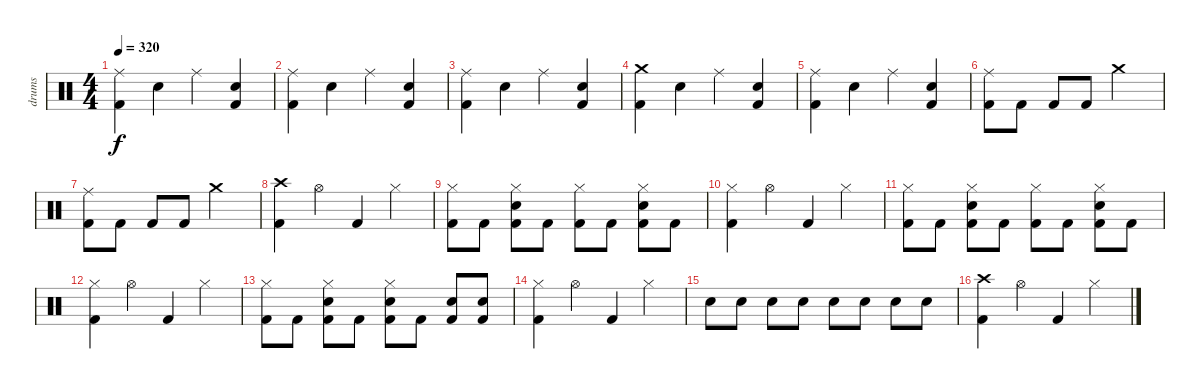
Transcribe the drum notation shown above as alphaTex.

\track ("drums" "drums") {instrument percussion}
\staff {score}
\articulation defaults
\ts (4 4)
\tempo 320
\clef neutral
\ks c
("Ride (middle)" "Kick (hit) 2").4{dy f} "Snare (hit) 2".4 "Ride (middle)".4 ("Snare (hit) 2" "Kick (hit) 2").4 |
("Ride (middle)" "Kick (hit) 2").4 "Snare (hit) 2".4 "Ride (middle)".4 ("Snare (hit) 2" "Kick (hit) 2").4 |
("Ride (middle)" "Kick (hit) 2").4 "Snare (hit) 2".4 "Ride (middle)".4 ("Snare (hit) 2" "Kick (hit) 2").4 |
("Crash medium (hit)" "Kick (hit) 2").4 "Snare (hit) 2".4 "Ride (middle)".4 ("Snare (hit) 2" "Kick (hit) 2").4 |
("Ride (middle)" "Kick (hit) 2").4 "Snare (hit) 2".4 "Ride (middle)".4 ("Snare (hit) 2" "Kick (hit) 2").4 |
("Ride (middle)" "Kick (hit) 2").8 "Kick (hit) 2".8 "Kick (hit) 2".8 "Kick (hit) 2".8 "Crash medium (hit)".2 |
("Ride (middle)" "Kick (hit) 2").8 "Kick (hit) 2".8 "Kick (hit) 2".8 "Kick (hit) 2".8 "Crash medium (hit)".2 |
("Crash high (hit)" "Kick (hit) 2").4 "Hi-Hat (open)".4 "Kick (hit) 2".4 "Hi-Hat (closed)".4 |
("Hi-Hat (closed)" "Kick (hit) 2").8 "Kick (hit) 2".8 ("Hi-Hat (closed)" "Kick (hit) 2" "Snare (hit) 2").8 "Kick (hit) 2".8 ("Hi-Hat (closed)" "Kick (hit) 2").8 "Kick (hit) 2".8 ("Hi-Hat (closed)" "Kick (hit) 2" "Snare (hit) 2").8 "Kick (hit) 2".8 |
("Hi-Hat (closed)" "Kick (hit) 2").4 "Hi-Hat (open)".4 "Kick (hit) 2".4 "Hi-Hat (closed)".4 |
("Hi-Hat (closed)" "Kick (hit) 2").8 "Kick (hit) 2".8 ("Hi-Hat (closed)" "Kick (hit) 2" "Snare (hit) 2").8 "Kick (hit) 2".8 ("Hi-Hat (closed)" "Kick (hit) 2").8 "Kick (hit) 2".8 ("Hi-Hat (closed)" "Kick (hit) 2" "Snare (hit) 2").8 "Kick (hit) 2".8 |
("Hi-Hat (closed)" "Kick (hit) 2").4 "Hi-Hat (open)".4 "Kick (hit) 2".4 "Hi-Hat (closed)".4 |
("Hi-Hat (closed)" "Kick (hit) 2").8 "Kick (hit) 2".8 ("Hi-Hat (closed)" "Kick (hit) 2" "Snare (hit) 2").8 "Kick (hit) 2".8 ("Hi-Hat (closed)" "Kick (hit) 2" "Snare (hit) 2").8 "Kick (hit) 2".8 ("Kick (hit) 2" "Snare (hit) 2").8 ("Kick (hit) 2" "Snare (hit) 2").8 |
("Hi-Hat (closed)" "Kick (hit) 2").4 "Hi-Hat (open)".4 "Kick (hit) 2".4 "Hi-Hat (closed)".4 |
"Snare (hit) 2".8 "Snare (hit) 2".8 "Snare (hit) 2".8 "Snare (hit) 2".8 "Snare (hit) 2".8 "Snare (hit) 2".8 "Snare (hit) 2".8 "Snare (hit) 2".8 |
("Crash high (hit)" "Kick (hit) 2").4 "Hi-Hat (open)".4 "Kick (hit) 2".4 "Hi-Hat (closed)".4
